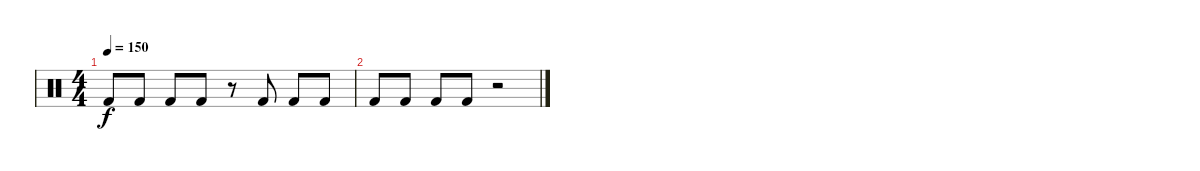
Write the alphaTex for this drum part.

\track "" {instrument percussion}
\staff {score}
\articulation defaults
\ts (4 4)
\tempo 150
\clef neutral
\ks c "Kick (hit) 2".8{dy f} "Kick (hit) 2".8 "Kick (hit) 2".8 "Kick (hit) 2".8
r.8 "Kick (hit) 2".8 "Kick (hit) 2".8 "Kick (hit) 2".8 |
"Kick (hit) 2".8 "Kick (hit) 2".8 "Kick (hit) 2".8 "Kick (hit) 2".8 r.2
